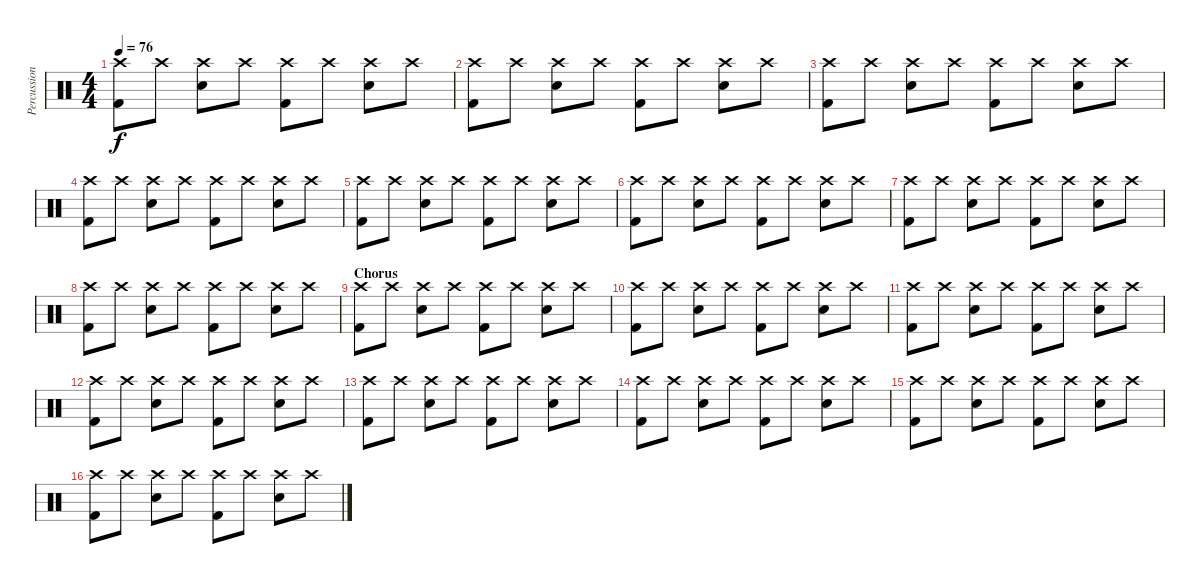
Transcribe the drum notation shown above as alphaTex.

\track ("Percussion" "Percussion") {instrument percussion}
\staff {score}
\articulation defaults
\ts (4 4)
\tempo 76
\clef neutral
\ks c
("Crash high (hit)" "Kick (hit) 2").8{dy f} "Crash high (hit)".8 ("Crash high (hit)" "Electric Snare (hit)").8 "Crash high (hit)".8 ("Crash high (hit)" "Kick (hit) 2").8 "Crash high (hit)".8 ("Crash high (hit)" "Electric Snare (hit)").8 "Crash high (hit)".8 |
("Crash high (hit)" "Kick (hit) 2").8 "Crash high (hit)".8 ("Crash high (hit)" "Electric Snare (hit)").8 "Crash high (hit)".8 ("Crash high (hit)" "Kick (hit) 2").8 "Crash high (hit)".8 ("Crash high (hit)" "Electric Snare (hit)").8 "Crash high (hit)".8 |
("Crash high (hit)" "Kick (hit) 2").8 "Crash high (hit)".8 ("Crash high (hit)" "Electric Snare (hit)").8 "Crash high (hit)".8 ("Crash high (hit)" "Kick (hit) 2").8 "Crash high (hit)".8 ("Crash high (hit)" "Electric Snare (hit)").8 "Crash high (hit)".8 |
("Crash high (hit)" "Kick (hit) 2").8 "Crash high (hit)".8 ("Crash high (hit)" "Electric Snare (hit)").8 "Crash high (hit)".8 ("Crash high (hit)" "Kick (hit) 2").8 "Crash high (hit)".8 ("Crash high (hit)" "Electric Snare (hit)").8 "Crash high (hit)".8 |
("Crash high (hit)" "Kick (hit) 2").8 "Crash high (hit)".8 ("Crash high (hit)" "Electric Snare (hit)").8 "Crash high (hit)".8 ("Crash high (hit)" "Kick (hit) 2").8 "Crash high (hit)".8 ("Crash high (hit)" "Electric Snare (hit)").8 "Crash high (hit)".8 |
("Crash high (hit)" "Kick (hit) 2").8 "Crash high (hit)".8 ("Crash high (hit)" "Electric Snare (hit)").8 "Crash high (hit)".8 ("Crash high (hit)" "Kick (hit) 2").8 "Crash high (hit)".8 ("Crash high (hit)" "Electric Snare (hit)").8 "Crash high (hit)".8 |
("Crash high (hit)" "Kick (hit) 2").8 "Crash high (hit)".8 ("Crash high (hit)" "Electric Snare (hit)").8 "Crash high (hit)".8 ("Crash high (hit)" "Kick (hit) 2").8 "Crash high (hit)".8 ("Crash high (hit)" "Electric Snare (hit)").8 "Crash high (hit)".8 |
("Crash high (hit)" "Kick (hit) 2").8 "Crash high (hit)".8 ("Crash high (hit)" "Electric Snare (hit)").8 "Crash high (hit)".8 ("Crash high (hit)" "Kick (hit) 2").8 "Crash high (hit)".8 ("Crash high (hit)" "Electric Snare (hit)").8 "Crash high (hit)".8 |
\section ("" "Chorus")
("Crash high (hit)" "Kick (hit) 2").8 "Crash high (hit)".8 ("Crash high (hit)" "Electric Snare (hit)").8 "Crash high (hit)".8 ("Crash high (hit)" "Kick (hit) 2").8 "Crash high (hit)".8 ("Crash high (hit)" "Electric Snare (hit)").8 "Crash high (hit)".8 |
("Crash high (hit)" "Kick (hit) 2").8 "Crash high (hit)".8 ("Crash high (hit)" "Electric Snare (hit)").8 "Crash high (hit)".8 ("Crash high (hit)" "Kick (hit) 2").8 "Crash high (hit)".8 ("Crash high (hit)" "Electric Snare (hit)").8 "Crash high (hit)".8 |
("Crash high (hit)" "Kick (hit) 2").8 "Crash high (hit)".8 ("Crash high (hit)" "Electric Snare (hit)").8 "Crash high (hit)".8 ("Crash high (hit)" "Kick (hit) 2").8 "Crash high (hit)".8 ("Crash high (hit)" "Electric Snare (hit)").8 "Crash high (hit)".8 |
("Crash high (hit)" "Kick (hit) 2").8 "Crash high (hit)".8 ("Crash high (hit)" "Electric Snare (hit)").8 "Crash high (hit)".8 ("Crash high (hit)" "Kick (hit) 2").8 "Crash high (hit)".8 ("Crash high (hit)" "Electric Snare (hit)").8 "Crash high (hit)".8 |
("Crash high (hit)" "Kick (hit) 2").8 "Crash high (hit)".8 ("Crash high (hit)" "Electric Snare (hit)").8 "Crash high (hit)".8 ("Crash high (hit)" "Kick (hit) 2").8 "Crash high (hit)".8 ("Crash high (hit)" "Electric Snare (hit)").8 "Crash high (hit)".8 |
("Crash high (hit)" "Kick (hit) 2").8 "Crash high (hit)".8 ("Crash high (hit)" "Electric Snare (hit)").8 "Crash high (hit)".8 ("Crash high (hit)" "Kick (hit) 2").8 "Crash high (hit)".8 ("Crash high (hit)" "Electric Snare (hit)").8 "Crash high (hit)".8 |
("Crash high (hit)" "Kick (hit) 2").8 "Crash high (hit)".8 ("Crash high (hit)" "Electric Snare (hit)").8 "Crash high (hit)".8 ("Crash high (hit)" "Kick (hit) 2").8 "Crash high (hit)".8 ("Crash high (hit)" "Electric Snare (hit)").8 "Crash high (hit)".8 |
("Crash high (hit)" "Kick (hit) 2").8 "Crash high (hit)".8 ("Crash high (hit)" "Electric Snare (hit)").8 "Crash high (hit)".8 ("Crash high (hit)" "Kick (hit) 2").8 "Crash high (hit)".8 ("Crash high (hit)" "Electric Snare (hit)").8 "Crash high (hit)".8
